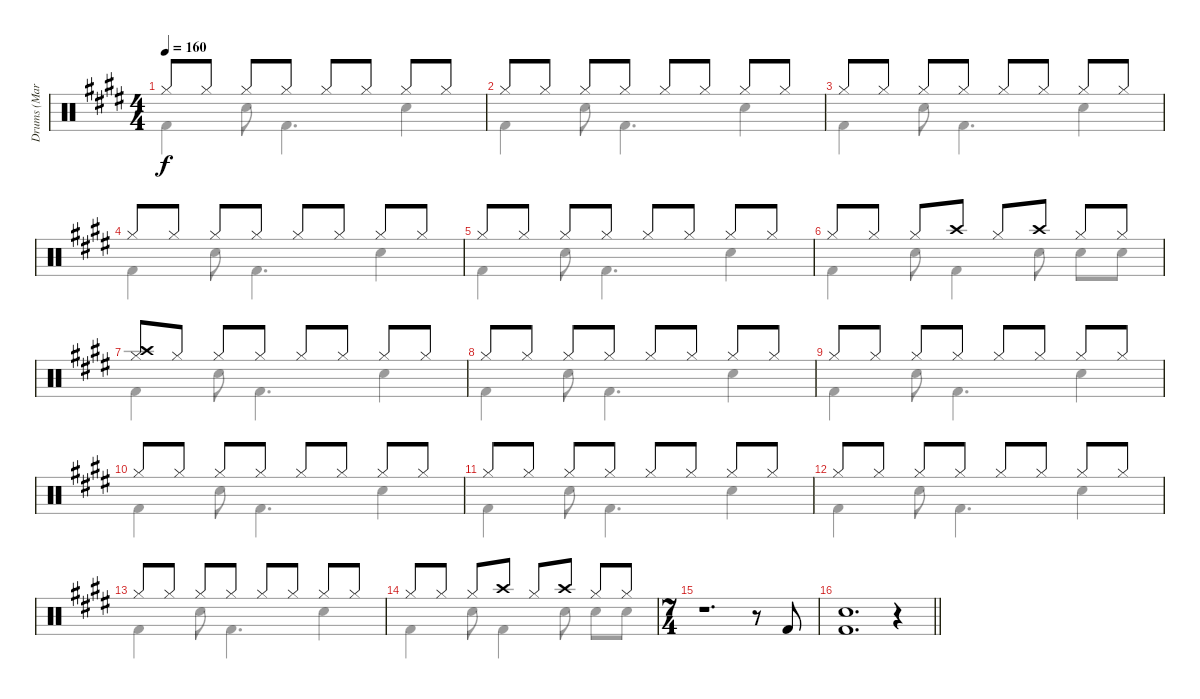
\track ("Drums (Mark Zonder)" "Drums (Mar") {instrument percussion}
\staff {score}
\articulation defaults
\voice
\ts (4 4)
\tempo 160
\clef neutral
\ks c#minor "Hi-Hat (closed)".8{dy f} "Hi-Hat (closed)".8 "Hi-Hat (closed)".8 "Hi-Hat (closed)".8 "Hi-Hat (closed)".8 "Hi-Hat (closed)".8 "Hi-Hat (closed)".8 "Hi-Hat (closed)".8
|
"Hi-Hat (closed)".8 "Hi-Hat (closed)".8 "Hi-Hat (closed)".8 "Hi-Hat (closed)".8 "Hi-Hat (closed)".8 "Hi-Hat (closed)".8 "Hi-Hat (closed)".8 "Hi-Hat (closed)".8 |
"Hi-Hat (closed)".8 "Hi-Hat (closed)".8 "Hi-Hat (closed)".8 "Hi-Hat (closed)".8 "Hi-Hat (closed)".8 "Hi-Hat (closed)".8 "Hi-Hat (closed)".8 "Hi-Hat (closed)".8 |
"Hi-Hat (closed)".8 "Hi-Hat (closed)".8 "Hi-Hat (closed)".8 "Hi-Hat (closed)".8 "Hi-Hat (closed)".8 "Hi-Hat (closed)".8 "Hi-Hat (closed)".8 "Hi-Hat (closed)".8 |
"Hi-Hat (closed)".8 "Hi-Hat (closed)".8 "Hi-Hat (closed)".8 "Hi-Hat (closed)".8 "Hi-Hat (closed)".8 "Hi-Hat (closed)".8 "Hi-Hat (closed)".8 "Hi-Hat (closed)".8 |
"Hi-Hat (closed)".8 "Hi-Hat (closed)".8 "Hi-Hat (closed)".8 "Crash high (hit)".8 "Hi-Hat (closed)".8 "Crash high (hit)".8 "Hi-Hat (closed)".8 "Hi-Hat (closed)".8 |
("Hi-Hat (closed)" "Crash high (hit)").8 "Hi-Hat (closed)".8 "Hi-Hat (closed)".8 "Hi-Hat (closed)".8 "Hi-Hat (closed)".8 "Hi-Hat (closed)".8 "Hi-Hat (closed)".8 "Hi-Hat (closed)".8 |
"Hi-Hat (closed)".8 "Hi-Hat (closed)".8 "Hi-Hat (closed)".8 "Hi-Hat (closed)".8 "Hi-Hat (closed)".8 "Hi-Hat (closed)".8 "Hi-Hat (closed)".8 "Hi-Hat (closed)".8 |
"Hi-Hat (closed)".8 "Hi-Hat (closed)".8 "Hi-Hat (closed)".8 "Hi-Hat (closed)".8 "Hi-Hat (closed)".8 "Hi-Hat (closed)".8 "Hi-Hat (closed)".8 "Hi-Hat (closed)".8 |
"Hi-Hat (closed)".8 "Hi-Hat (closed)".8 "Hi-Hat (closed)".8 "Hi-Hat (closed)".8 "Hi-Hat (closed)".8 "Hi-Hat (closed)".8 "Hi-Hat (closed)".8 "Hi-Hat (closed)".8 |
"Hi-Hat (closed)".8 "Hi-Hat (closed)".8 "Hi-Hat (closed)".8 "Hi-Hat (closed)".8 "Hi-Hat (closed)".8 "Hi-Hat (closed)".8 "Hi-Hat (closed)".8 "Hi-Hat (closed)".8 |
"Hi-Hat (closed)".8 "Hi-Hat (closed)".8 "Hi-Hat (closed)".8 "Hi-Hat (closed)".8 "Hi-Hat (closed)".8 "Hi-Hat (closed)".8 "Hi-Hat (closed)".8 "Hi-Hat (closed)".8 |
"Hi-Hat (closed)".8 "Hi-Hat (closed)".8 "Hi-Hat (closed)".8 "Hi-Hat (closed)".8 "Hi-Hat (closed)".8 "Hi-Hat (closed)".8 "Hi-Hat (closed)".8 "Hi-Hat (closed)".8 |
"Hi-Hat (closed)".8 "Hi-Hat (closed)".8 "Hi-Hat (closed)".8 "Crash high (hit)".8 "Hi-Hat (closed)".8 "Crash high (hit)".8 "Hi-Hat (closed)".8 "Hi-Hat (closed)".8 |
\ts (7 4)
r.1{d} r.8 "Kick (hit) 2".8 |
\barLineRight lightlight
("Electric Snare (hit)" "Kick (hit) 2").1{d} r.4
\voice
\clef neutral
\ottava regular
\simile none
\ks c#minor "Kick (hit) 2".4{dy f} "Electric Snare (hit)".8 "Kick (hit) 2".4{d} "Electric Snare (hit)".4
|
"Kick (hit) 2".4 "Electric Snare (hit)".8 "Kick (hit) 2".4{d} "Electric Snare (hit)".4 |
"Kick (hit) 2".4 "Electric Snare (hit)".8 "Kick (hit) 2".4{d} "Electric Snare (hit)".4 |
"Kick (hit) 2".4 "Electric Snare (hit)".8 "Kick (hit) 2".4{d} "Electric Snare (hit)".4 |
"Kick (hit) 2".4 "Electric Snare (hit)".8 "Kick (hit) 2".4{d} "Electric Snare (hit)".4 |
"Kick (hit) 2".4 "Electric Snare (hit)".8 "Kick (hit) 2".4 "Electric Snare (hit)".8 "Electric Snare (hit)".8 "Electric Snare (hit)".8 |
"Kick (hit) 2".4 "Electric Snare (hit)".8 "Kick (hit) 2".4{d} "Electric Snare (hit)".4 |
"Kick (hit) 2".4 "Electric Snare (hit)".8 "Kick (hit) 2".4{d} "Electric Snare (hit)".4 |
"Kick (hit) 2".4 "Electric Snare (hit)".8 "Kick (hit) 2".4{d} "Electric Snare (hit)".4 |
"Kick (hit) 2".4 "Electric Snare (hit)".8 "Kick (hit) 2".4{d} "Electric Snare (hit)".4 |
"Kick (hit) 2".4 "Electric Snare (hit)".8 "Kick (hit) 2".4{d} "Electric Snare (hit)".4 |
"Kick (hit) 2".4 "Electric Snare (hit)".8 "Kick (hit) 2".4{d} "Electric Snare (hit)".4 |
"Kick (hit) 2".4 "Electric Snare (hit)".8 "Kick (hit) 2".4{d} "Electric Snare (hit)".4 |
"Kick (hit) 2".4 "Electric Snare (hit)".8 "Kick (hit) 2".4 "Electric Snare (hit)".8 "Electric Snare (hit)".8 "Electric Snare (hit)".8 |
|
\barLineRight lightlight
